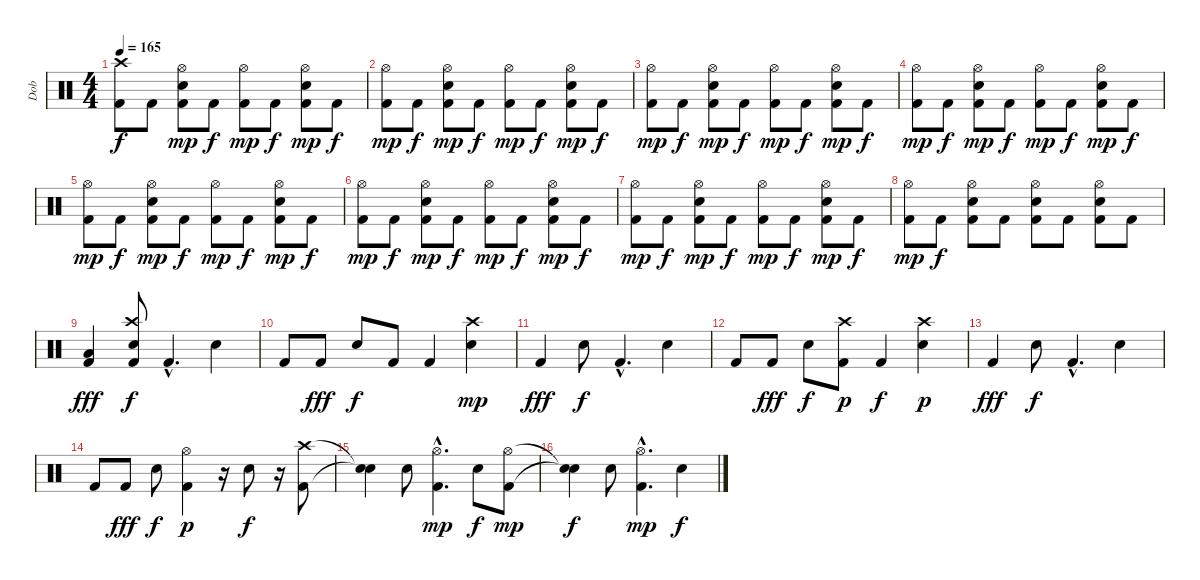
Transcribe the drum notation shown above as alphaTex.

\track ("Dob" "Dob") {instrument percussion}
\staff {score}
\articulation defaults
\ts (4 4)
\tempo 165
\clef neutral
\ks c
("Kick (hit) 2" "Crash high (hit)").8{dy f} "Kick (hit) 2".8 ("Electric Snare (hit)" "Kick (hit) 2" "Hi-Hat (open)").8{dy mp} "Kick (hit) 2".8{dy f} ("Kick (hit) 2" "Hi-Hat (open)").8{dy mp} "Kick (hit) 2".8{dy f} ("Electric Snare (hit)" "Kick (hit) 2" "Hi-Hat (open)").8{dy mp} "Kick (hit) 2".8{dy f} |
("Kick (hit) 2" "Hi-Hat (open)").8{dy mp} "Kick (hit) 2".8{dy f} ("Electric Snare (hit)" "Kick (hit) 2" "Hi-Hat (open)").8{dy mp} "Kick (hit) 2".8{dy f} ("Kick (hit) 2" "Hi-Hat (open)").8{dy mp} "Kick (hit) 2".8{dy f} ("Electric Snare (hit)" "Kick (hit) 2" "Hi-Hat (open)").8{dy mp} "Kick (hit) 2".8{dy f} |
("Kick (hit) 2" "Hi-Hat (open)").8{dy mp} "Kick (hit) 2".8{dy f} ("Electric Snare (hit)" "Kick (hit) 2" "Hi-Hat (open)").8{dy mp} "Kick (hit) 2".8{dy f} ("Kick (hit) 2" "Hi-Hat (open)").8{dy mp} "Kick (hit) 2".8{dy f} ("Electric Snare (hit)" "Kick (hit) 2" "Hi-Hat (open)").8{dy mp} "Kick (hit) 2".8{dy f} |
("Kick (hit) 2" "Hi-Hat (open)").8{dy mp} "Kick (hit) 2".8{dy f} ("Electric Snare (hit)" "Kick (hit) 2" "Hi-Hat (open)").8{dy mp} "Kick (hit) 2".8{dy f} ("Kick (hit) 2" "Hi-Hat (open)").8{dy mp} "Kick (hit) 2".8{dy f} ("Electric Snare (hit)" "Kick (hit) 2" "Hi-Hat (open)").8{dy mp} "Kick (hit) 2".8{dy f} |
("Kick (hit) 2" "Hi-Hat (open)").8{dy mp} "Kick (hit) 2".8{dy f} ("Electric Snare (hit)" "Kick (hit) 2" "Hi-Hat (open)").8{dy mp} "Kick (hit) 2".8{dy f} ("Kick (hit) 2" "Hi-Hat (open)").8{dy mp} "Kick (hit) 2".8{dy f} ("Electric Snare (hit)" "Kick (hit) 2" "Hi-Hat (open)").8{dy mp} "Kick (hit) 2".8{dy f} |
("Kick (hit) 2" "Hi-Hat (open)").8{dy mp} "Kick (hit) 2".8{dy f} ("Electric Snare (hit)" "Kick (hit) 2" "Hi-Hat (open)").8{dy mp} "Kick (hit) 2".8{dy f} ("Kick (hit) 2" "Hi-Hat (open)").8{dy mp} "Kick (hit) 2".8{dy f} ("Electric Snare (hit)" "Kick (hit) 2" "Hi-Hat (open)").8{dy mp} "Kick (hit) 2".8{dy f} |
("Kick (hit) 2" "Hi-Hat (open)").8{dy mp} "Kick (hit) 2".8{dy f} ("Electric Snare (hit)" "Kick (hit) 2" "Hi-Hat (open)").8{dy mp} "Kick (hit) 2".8{dy f} ("Kick (hit) 2" "Hi-Hat (open)").8{dy mp} "Kick (hit) 2".8{dy f} ("Electric Snare (hit)" "Kick (hit) 2" "Hi-Hat (open)").8{dy mp} "Kick (hit) 2".8{dy f} |
("Kick (hit) 2" "Hi-Hat (open)").8{dy mp} "Kick (hit) 2".8{dy f} ("Electric Snare (hit)" "Kick (hit) 2" "Hi-Hat (open)").8 "Kick (hit) 2".8 ("Electric Snare (hit)" "Kick (hit) 2" "Hi-Hat (open)").8 "Kick (hit) 2".8 ("Electric Snare (hit)" "Kick (hit) 2" "Hi-Hat (open)").8 "Kick (hit) 2".8 |
("Kick (hit) 2" "Low Tom (hit)").4{dy fff} ("Electric Snare (hit)" "Kick (hit) 2" "Crash high (hit)").8{dy f} "Kick (hit) 2"{hac}.4{d} "Electric Snare (hit)".4 |
"Kick (hit) 2".8 "Kick (hit) 2".8{dy fff} "Electric Snare (hit)".8{dy f} "Kick (hit) 2".8 "Kick (hit) 2".4 ("Electric Snare (hit)" "Crash high (hit)").4{dy mp} |
"Kick (hit) 2".4{dy fff} "Electric Snare (hit)".8{dy f} "Kick (hit) 2"{hac}.4{d} "Electric Snare (hit)".4 |
"Kick (hit) 2".8 "Kick (hit) 2".8{dy fff} "Electric Snare (hit)".8{dy f} ("Kick (hit) 2" "Crash high (hit)").8{dy p} "Kick (hit) 2".4{dy f} ("Electric Snare (hit)" "Crash high (hit)").4{dy p} |
"Kick (hit) 2".4{dy fff} "Electric Snare (hit)".8{dy f} "Kick (hit) 2"{hac}.4{d} "Electric Snare (hit)".4 |
"Kick (hit) 2".8 "Kick (hit) 2".8{dy fff} "Electric Snare (hit)".8{dy f} ("Kick (hit) 2" "Hi-Hat (open)").4{dy p} r.16 "Electric Snare (hit)"{tr (40 16)}.8{dy f} r.16 ("Kick (hit) 2" "Crash high (hit)").8 |
("Snare (hit)"{t} "Snare (hit)"{t}).4 "Electric Snare (hit)".8 ("Kick (hit) 2"{hac} "Hi-Hat (open)"{hac}).4{d dy mp} "Electric Snare (hit)".8{dy f} ("Kick (hit) 2" "Hi-Hat (open)").8{dy mp} |
("Snare (hit)"{t} "Snare (hit)"{t}).4{dy f} "Electric Snare (hit)".8 ("Kick (hit) 2"{hac} "Hi-Hat (open)"{hac}).4{d dy mp} "Electric Snare (hit)".4{dy f}
